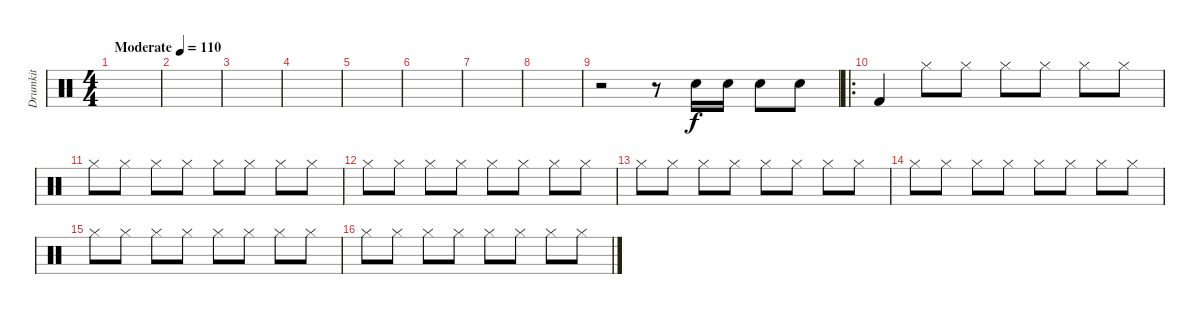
\track ("Drumkit" "Drumkit") {instrument percussion}
\staff {score}
\articulation defaults
\ts (4 4)
\tempo (110 "Moderate")
\clef neutral
\ks c
|
|
|
|
|
|
|
|
r.2 r.8 "Snare (hit) 2".16 "Snare (hit) 2".16 "Snare (hit) 2".8 "Snare (hit) 2".8 |
\ro "Kick (hit) 2".4 "Hi-Hat (closed)".8 "Hi-Hat (closed)".8 "Hi-Hat (closed)".8 "Hi-Hat (closed)".8 "Hi-Hat (closed)".8 "Hi-Hat (closed)".8
|
"Hi-Hat (closed)".8 "Hi-Hat (closed)".8 "Hi-Hat (closed)".8 "Hi-Hat (closed)".8 "Hi-Hat (closed)".8 "Hi-Hat (closed)".8 "Hi-Hat (closed)".8 "Hi-Hat (closed)".8 |
"Hi-Hat (closed)".8 "Hi-Hat (closed)".8 "Hi-Hat (closed)".8 "Hi-Hat (closed)".8 "Hi-Hat (closed)".8 "Hi-Hat (closed)".8 "Hi-Hat (closed)".8 "Hi-Hat (closed)".8 |
"Hi-Hat (closed)".8 "Hi-Hat (closed)".8 "Hi-Hat (closed)".8 "Hi-Hat (closed)".8 "Hi-Hat (closed)".8 "Hi-Hat (closed)".8 "Hi-Hat (closed)".8 "Hi-Hat (closed)".8 |
"Hi-Hat (closed)".8 "Hi-Hat (closed)".8 "Hi-Hat (closed)".8 "Hi-Hat (closed)".8 "Hi-Hat (closed)".8 "Hi-Hat (closed)".8 "Hi-Hat (closed)".8 "Hi-Hat (closed)".8 |
"Hi-Hat (closed)".8 "Hi-Hat (closed)".8 "Hi-Hat (closed)".8 "Hi-Hat (closed)".8 "Hi-Hat (closed)".8 "Hi-Hat (closed)".8 "Hi-Hat (closed)".8 "Hi-Hat (closed)".8 |
"Hi-Hat (closed)".8 "Hi-Hat (closed)".8 "Hi-Hat (closed)".8 "Hi-Hat (closed)".8 "Hi-Hat (closed)".8 "Hi-Hat (closed)".8 "Hi-Hat (closed)".8 "Hi-Hat (closed)".8
